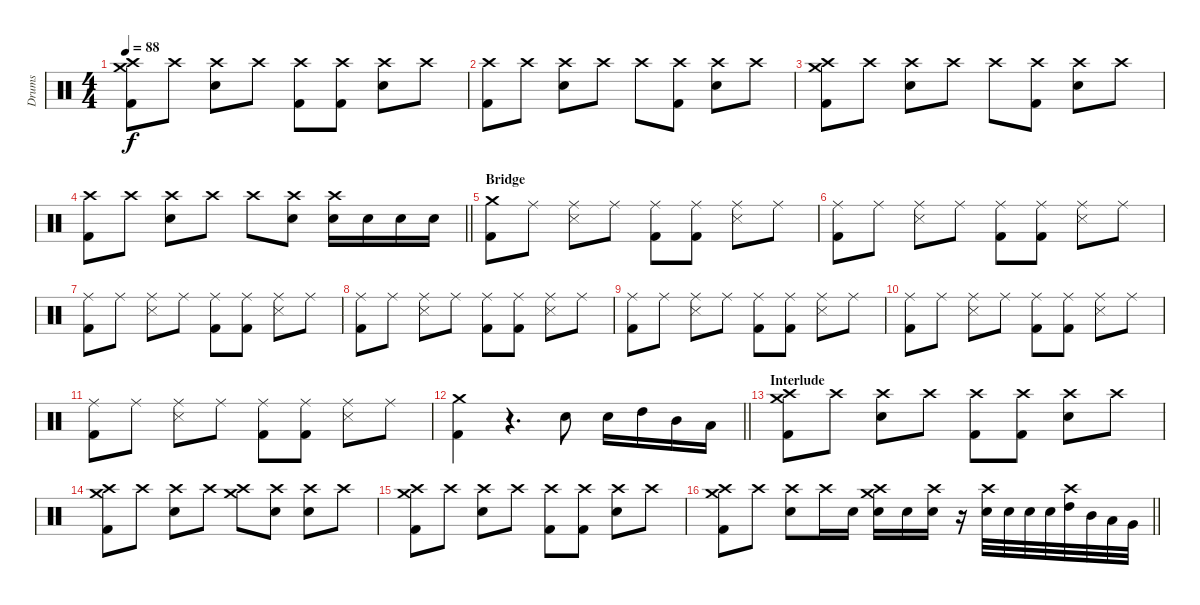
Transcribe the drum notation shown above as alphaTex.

\track ("Drums" "Drums") {instrument percussion}
\staff {score}
\articulation defaults
\ts (4 4)
\tempo 88
\clef neutral
\ks c
("Crash high (hit)" "Crash medium (hit)" "Kick (hit) 2").8{dy f} "Crash high (hit)".8 ("Crash high (hit)" "Electric Snare (hit)").8 "Crash high (hit)".8 ("Crash high (hit)" "Kick (hit) 2").8 ("Crash high (hit)" "Kick (hit) 2").8 ("Crash high (hit)" "Electric Snare (hit)").8 "Crash high (hit)".8 |
("Crash high (hit)" "Kick (hit) 2").8 "Crash high (hit)".8 ("Crash high (hit)" "Electric Snare (hit)").8 "Crash high (hit)".8 "Crash high (hit)".8 ("Crash high (hit)" "Kick (hit) 2").8 ("Crash high (hit)" "Electric Snare (hit)").8 "Crash high (hit)".8 |
("Crash high (hit)" "Crash medium (hit)" "Kick (hit) 2").8 "Crash high (hit)".8 ("Crash high (hit)" "Electric Snare (hit)").8 "Crash high (hit)".8 "Crash high (hit)".8 ("Crash high (hit)" "Kick (hit) 2").8 ("Crash high (hit)" "Electric Snare (hit)").8 "Crash high (hit)".8 |
\barLineRight lightlight
("Crash high (hit)" "Kick (hit) 2").8 "Crash high (hit)".8 ("Crash high (hit)" "Electric Snare (hit)").8 "Crash high (hit)".8 "Crash high (hit)".8 ("Crash high (hit)" "Electric Snare (hit)").8 ("Crash high (hit)" "Electric Snare (hit)").16 "Electric Snare (hit)".16 "Electric Snare (hit)".16 "Electric Snare (hit)".16 |
\section ("" "Bridge")
("Crash medium (hit)" "Kick (hit) 2").8 "Ride (middle)".8 ("Ride (middle)" "Snare (side stick) 3").8 "Ride (middle)".8 ("Ride (middle)" "Kick (hit) 2").8 ("Ride (middle)" "Kick (hit) 2").8 ("Ride (middle)" "Snare (side stick) 3").8 "Ride (middle)".8 |
("Ride (middle)" "Kick (hit) 2").8 "Ride (middle)".8 ("Ride (middle)" "Snare (side stick) 3").8 "Ride (middle)".8 ("Ride (middle)" "Kick (hit) 2").8 ("Ride (middle)" "Kick (hit) 2").8 ("Ride (middle)" "Snare (side stick) 3").8 "Ride (middle)".8 |
("Ride (middle)" "Kick (hit) 2").8 "Ride (middle)".8 ("Ride (middle)" "Snare (side stick) 3").8 "Ride (middle)".8 ("Ride (middle)" "Kick (hit) 2").8 ("Ride (middle)" "Kick (hit) 2").8 ("Ride (middle)" "Snare (side stick) 3").8 "Ride (middle)".8 |
("Ride (middle)" "Kick (hit) 2").8 "Ride (middle)".8 ("Ride (middle)" "Snare (side stick) 3").8 "Ride (middle)".8 ("Ride (middle)" "Kick (hit) 2").8 ("Ride (middle)" "Kick (hit) 2").8 ("Ride (middle)" "Snare (side stick) 3").8 "Ride (middle)".8 |
("Ride (middle)" "Kick (hit) 2").8 "Ride (middle)".8 ("Ride (middle)" "Snare (side stick) 3").8 "Ride (middle)".8 ("Ride (middle)" "Kick (hit) 2").8 ("Ride (middle)" "Kick (hit) 2").8 ("Ride (middle)" "Snare (side stick) 3").8 "Ride (middle)".8 |
("Ride (middle)" "Kick (hit) 2").8 "Ride (middle)".8 ("Ride (middle)" "Snare (side stick) 3").8 "Ride (middle)".8 ("Ride (middle)" "Kick (hit) 2").8 ("Ride (middle)" "Kick (hit) 2").8 ("Ride (middle)" "Snare (side stick) 3").8 "Ride (middle)".8 |
("Ride (middle)" "Kick (hit) 2").8 "Ride (middle)".8 ("Ride (middle)" "Snare (side stick) 3").8 "Ride (middle)".8 ("Ride (middle)" "Kick (hit) 2").8 ("Ride (middle)" "Kick (hit) 2").8 ("Ride (middle)" "Snare (side stick) 3").8 "Ride (middle)".8 |
\barLineRight lightlight
("Crash medium (hit)" "Kick (hit) 2").4 r.4{d} "Electric Snare (hit)".8 "Electric Snare (hit)".16 "High Tom (hit)".16 "Mid Tom (hit)".16 "Low Tom (hit)".16 |
\section ("" "Interlude")
("Crash high (hit)" "Crash medium (hit)" "Kick (hit) 2").8 "Crash high (hit)".8 ("Crash high (hit)" "Electric Snare (hit)").8 "Crash high (hit)".8 ("Crash high (hit)" "Kick (hit) 2").8 ("Crash high (hit)" "Kick (hit) 2").8 ("Crash high (hit)" "Electric Snare (hit)").8 "Crash high (hit)".8 |
("Crash high (hit)" "Crash medium (hit)" "Kick (hit) 2").8 "Crash high (hit)".8 ("Crash high (hit)" "Electric Snare (hit)").8 "Crash high (hit)".8 ("Crash high (hit)" "Crash medium (hit)").8 ("Crash high (hit)" "Electric Snare (hit)").8 ("Crash high (hit)" "Electric Snare (hit)").8 "Crash high (hit)".8 |
("Crash high (hit)" "Crash medium (hit)" "Kick (hit) 2").8 "Crash high (hit)".8 ("Crash high (hit)" "Electric Snare (hit)").8 "Crash high (hit)".8 ("Crash high (hit)" "Kick (hit) 2").8 ("Crash high (hit)" "Kick (hit) 2").8 ("Crash high (hit)" "Electric Snare (hit)").8 "Crash high (hit)".8 |
\barLineRight lightlight
("Crash high (hit)" "Crash medium (hit)" "Kick (hit) 2").8 "Crash high (hit)".8 ("Crash high (hit)" "Electric Snare (hit)").8 "Crash high (hit)".16 "Electric Snare (hit)".16 ("Crash high (hit)" "Crash medium (hit)" "Electric Snare (hit)").16 "Electric Snare (hit)".16 ("Crash high (hit)" "Electric Snare (hit)").16 r.16 ("Crash high (hit)" "Electric Snare (hit)").32 "Electric Snare (hit)".32 "Electric Snare (hit)".32 "Electric Snare (hit)".32 ("Crash high (hit)" "High Tom (hit)").32 "Mid Tom (hit)".32 "Low Tom (hit)".32 "Very Low Tom (hit)".32
